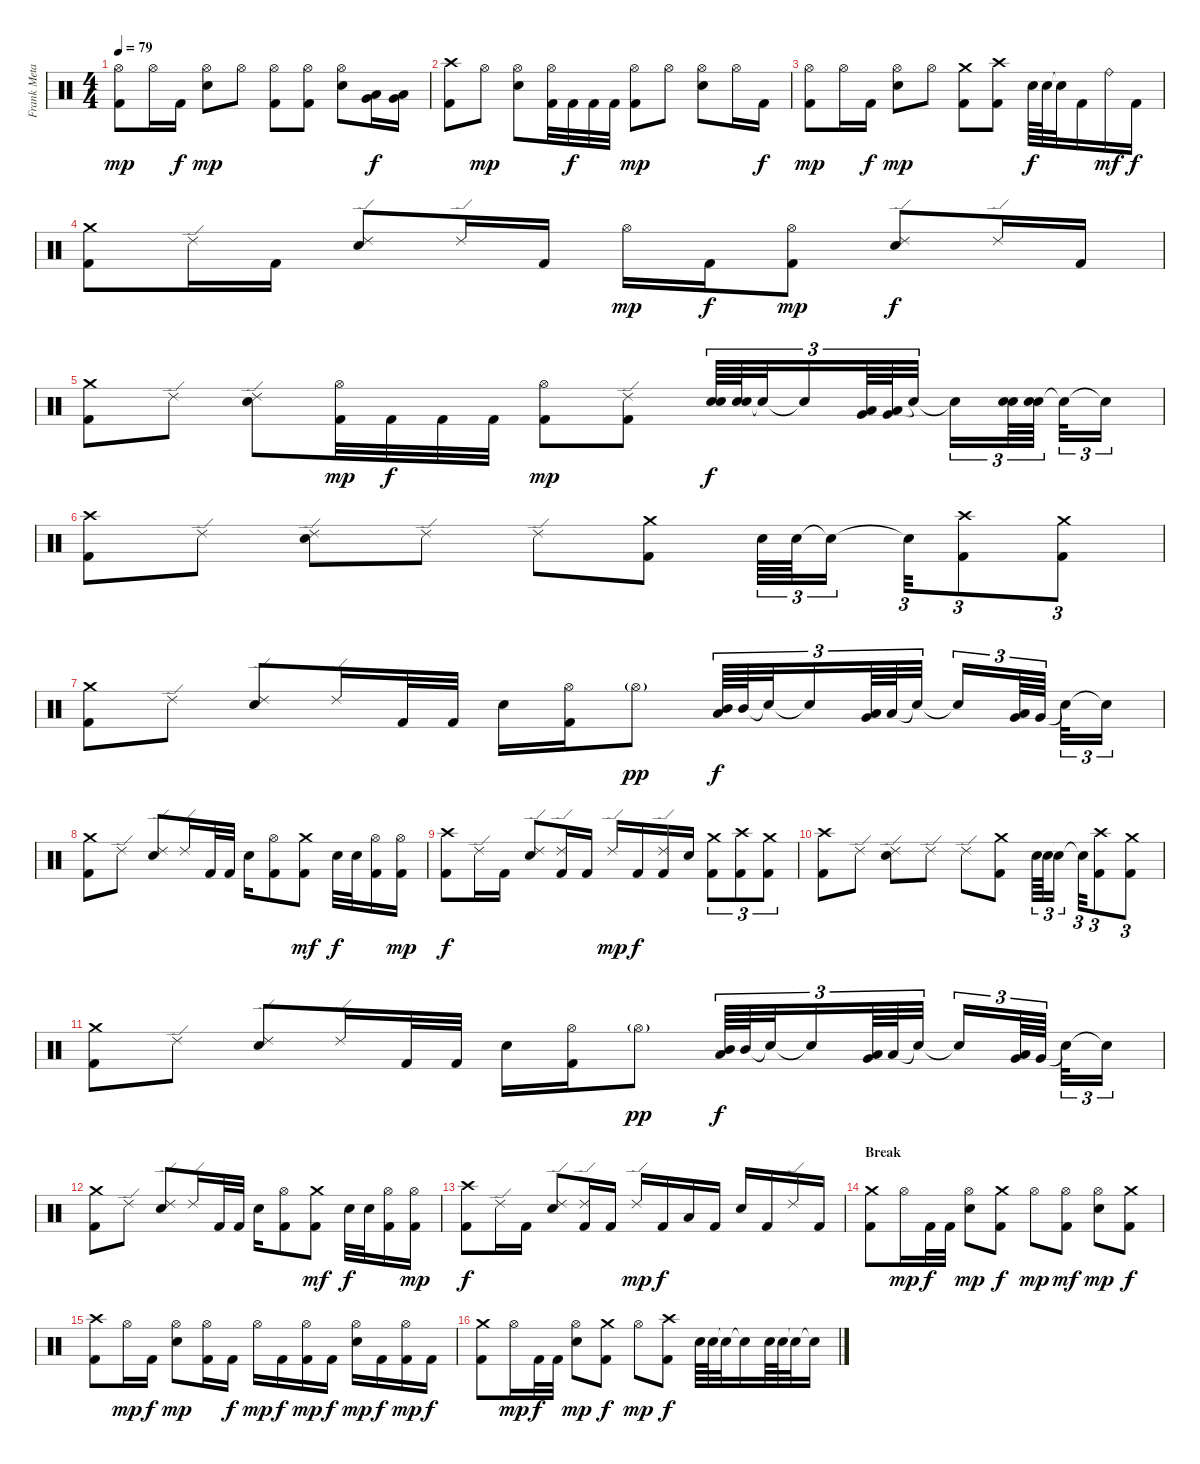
\track ("Frank Metayer" "Frank Meta") {instrument percussion}
\staff {score}
\articulation defaults
\ts (4 4)
\tempo 79
\clef neutral
\ks c
("Kick (hit) 2" "Hi-Hat (open)").8{dy mp} "Hi-Hat (open)".16 "Kick (hit) 2".16{dy f} ("Hi-Hat (open)" "Snare (hit) 2").8{dy mp} "Hi-Hat (open)".8 ("Kick (hit) 2" "Hi-Hat (open)").8 ("Kick (hit) 2" "Hi-Hat (open)").8 ("Hi-Hat (open)" "Snare (hit) 2").8 ("Very Low Tom (hit)" "Low Floor Tom (hit)").16{dy f} ("Very Low Tom (hit)" "Low Floor Tom (hit)").16 |
("Kick (hit) 2" "Crash high (hit)").8 "Hi-Hat (open)".8{dy mp} ("Hi-Hat (open)" "Snare (hit) 2").8 ("Kick (hit) 2" "Hi-Hat (open)").32 "Kick (hit) 2".32{dy f} "Kick (hit) 2".32 "Kick (hit) 2".32 ("Kick (hit) 2" "Hi-Hat (open)").8{dy mp} "Hi-Hat (open)".8 ("Hi-Hat (open)" "Snare (hit) 2").8 "Hi-Hat (open)".16 "Kick (hit) 2".16{dy f} |
("Kick (hit) 2" "Hi-Hat (open)").8{dy mp} "Hi-Hat (open)".16 "Kick (hit) 2".16{dy f} ("Hi-Hat (open)" "Snare (hit) 2").8{dy mp} "Hi-Hat (open)".8 ("Kick (hit) 2" "Crash medium (hit)").8 ("Kick (hit) 2" "Crash high (hit)").8 "Snare (hit) 2".64{dy f} "Snare (hit) 2".64 "Snare (hit)"{t}.32 "Kick (hit) 2".16 "Ride (bell)".16{dy mf} "Kick (hit) 2".16{dy f} |
("Kick (hit) 2" "Crash medium (hit)").8 "Ride (edge) 2".16 "Kick (hit) 2".16 ("Ride (edge) 2" "Snare (hit) 2").8 "Ride (edge) 2".16 "Kick (hit) 2".16 "Hi-Hat (open)".16{dy mp} "Kick (hit) 2".16{dy f} ("Kick (hit) 2" "Hi-Hat (open)").8{dy mp} ("Ride (edge) 2" "Snare (hit) 2").8{dy f} "Ride (edge) 2".16 "Kick (hit) 2".16 |
("Kick (hit) 2" "Crash medium (hit)").8 "Ride (edge) 2".8 ("Ride (edge) 2" "Snare (hit) 2").8 ("Kick (hit) 2" "Hi-Hat (open)").32{dy mp} "Kick (hit) 2".32{dy f} "Kick (hit) 2".32 "Kick (hit) 2".32 ("Kick (hit) 2" "Hi-Hat (open)").8{dy mp} ("Kick (hit) 2" "Ride (edge) 2").8 ("Snare (hit) 2" "Snare (hit) 2").64{tu (3 2) dy f} ("Snare (hit) 2" "Snare (hit) 2").64{tu (3 2)} "Snare (hit)"{t}.32{tu (3 2)} "Snare (hit)"{t}.16{tu (3 2)} ("Low Tom (hit)" "Very Low Tom (hit)").64{tu (3 2)} ("Low Tom (hit)" "Very Low Tom (hit)").64{tu (3 2)} "Snare (hit)"{t}.32{tu (3 2)} "Snare (hit)"{t}.16{tu (3 2)} ("Snare (hit) 2" "Snare (hit) 2").64{tu (3 2)} ("Snare (hit) 2" "Snare (hit) 2").64{tu (3 2)} "Snare (hit)"{t}.32{tu (3 2)} "Snare (hit)"{t}.16{tu (3 2)} |
("Kick (hit) 2" "Crash high (hit)").8 "Ride (edge) 2".8 ("Ride (edge) 2" "Snare (hit) 2").8 "Ride (edge) 2".8 "Ride (edge) 2".8 ("Kick (hit) 2" "Crash medium (hit)").8 "Snare (hit) 2".64{tu (3 2)} "Snare (hit) 2".64{tu (3 2)} "Snare (hit)"{t}.16{tu (3 2)} "Snare (hit)"{t}.32{tu (3 2)} ("Kick (hit) 2" "Crash high (hit)").8{tu (3 2)} ("Kick (hit) 2" "Crash medium (hit)").8{tu (3 2)} |
("Kick (hit) 2" "Crash medium (hit)").8 "Ride (edge) 2".8 ("Ride (edge) 2" "Snare (hit) 2").8 "Ride (edge) 2".16 "Kick (hit) 2".32 "Kick (hit) 2".32 "Snare (hit) 2".16 ("Kick (hit) 2" "Hi-Hat (open)").16 "Hi-Hat (open)"{g}.8{dy pp} ("Mid Tom (hit)" "Low Tom (hit)").64{tu (3 2) dy f} "Mid Tom (hit)".64{tu (3 2)} "Snare (hit)"{t}.32{tu (3 2)} "Snare (hit)"{t}.16{tu (3 2)} ("Low Tom (hit)" "Very Low Tom (hit)").64{tu (3 2)} "Low Tom (hit)".64{tu (3 2)} "Snare (hit)"{t}.32{tu (3 2)} "Snare (hit)"{t}.16{tu (3 2)} ("Very Low Tom (hit)" "Low Floor Tom (hit)").64{tu (3 2)} "Very Low Tom (hit)".64{tu (3 2)} "Snare (hit)"{t}.32{tu (3 2)} "Snare (hit)"{t}.16{tu (3 2)} |
("Kick (hit) 2" "Crash medium (hit)").8 "Ride (edge) 2".8 ("Ride (edge) 2" "Snare (hit) 2").8 "Ride (edge) 2".16 "Kick (hit) 2".32 "Kick (hit) 2".32 "Snare (hit) 2".16 ("Kick (hit) 2" "Hi-Hat (open)").8 ("Kick (hit) 2" "Crash medium (hit)").8{dy mf} "Snare (hit) 2".32{dy f} "Snare (hit) 2".32 ("Kick (hit) 2" "Hi-Hat (open)").16 ("Kick (hit) 2" "Hi-Hat (open)").16{dy mp} |
("Kick (hit) 2" "Crash high (hit)").8{dy f} "Ride (edge) 2".16 "Kick (hit) 2".16 ("Ride (edge) 2" "Snare (hit) 2").8 ("Kick (hit) 2" "Ride (edge) 2").16 "Kick (hit) 2".16 "Ride (edge) 2".16{dy mp} "Kick (hit) 2".16{dy f} ("Kick (hit) 2" "Ride (edge) 2").16 "Snare (hit) 2".16 ("Kick (hit) 2" "Crash medium (hit)").8{tu (3 2)} ("Kick (hit) 2" "Crash high (hit)").8{tu (3 2)} ("Kick (hit) 2" "Crash medium (hit)").8{tu (3 2)} |
("Kick (hit) 2" "Crash high (hit)").8 "Ride (edge) 2".8 ("Ride (edge) 2" "Snare (hit) 2").8 "Ride (edge) 2".8 "Ride (edge) 2".8 ("Kick (hit) 2" "Crash medium (hit)").8 "Snare (hit) 2".64{tu (3 2)} "Snare (hit) 2".64{tu (3 2)} "Snare (hit)"{t}.16{tu (3 2)} "Snare (hit)"{t}.32{tu (3 2)} ("Kick (hit) 2" "Crash high (hit)").8{tu (3 2)} ("Kick (hit) 2" "Crash medium (hit)").8{tu (3 2)} |
("Kick (hit) 2" "Crash medium (hit)").8 "Ride (edge) 2".8 ("Ride (edge) 2" "Snare (hit) 2").8 "Ride (edge) 2".16 "Kick (hit) 2".32 "Kick (hit) 2".32 "Snare (hit) 2".16 ("Kick (hit) 2" "Hi-Hat (open)").16 "Hi-Hat (open)"{g}.8{dy pp} ("Mid Tom (hit)" "Low Tom (hit)").64{tu (3 2) dy f} "Mid Tom (hit)".64{tu (3 2)} "Snare (hit)"{t}.32{tu (3 2)} "Snare (hit)"{t}.16{tu (3 2)} ("Low Tom (hit)" "Very Low Tom (hit)").64{tu (3 2)} "Low Tom (hit)".64{tu (3 2)} "Snare (hit)"{t}.32{tu (3 2)} "Snare (hit)"{t}.16{tu (3 2)} ("Very Low Tom (hit)" "Low Floor Tom (hit)").64{tu (3 2)} "Very Low Tom (hit)".64{tu (3 2)} "Snare (hit)"{t}.32{tu (3 2)} "Snare (hit)"{t}.16{tu (3 2)} |
("Kick (hit) 2" "Crash medium (hit)").8 "Ride (edge) 2".8 ("Ride (edge) 2" "Snare (hit) 2").8 "Ride (edge) 2".16 "Kick (hit) 2".32 "Kick (hit) 2".32 "Snare (hit) 2".16 ("Kick (hit) 2" "Hi-Hat (open)").8 ("Kick (hit) 2" "Crash medium (hit)").8{dy mf} "Snare (hit) 2".32{dy f} "Snare (hit) 2".32 ("Kick (hit) 2" "Hi-Hat (open)").16 ("Kick (hit) 2" "Hi-Hat (open)").16{dy mp} |
("Kick (hit) 2" "Crash high (hit)").8{dy f} "Ride (edge) 2".16 "Kick (hit) 2".16 ("Ride (edge) 2" "Snare (hit) 2").8 ("Kick (hit) 2" "Ride (edge) 2").16 "Kick (hit) 2".16 "Ride (edge) 2".16{dy mp} "Kick (hit) 2".16{dy f} "Low Tom (hit)".16 "Kick (hit) 2".16 "Snare (hit) 2".16 "Kick (hit) 2".16 "Ride (edge) 2".16 "Kick (hit) 2".16 |
\section ("" "Break")
("Kick (hit) 2" "Crash medium (hit)").8 "Hi-Hat (open)".16{dy mp} "Kick (hit) 2".32{dy f} "Kick (hit) 2".32 ("Hi-Hat (open)" "Snare (hit) 2").8{dy mp} ("Kick (hit) 2" "Crash medium (hit)").8{dy f} "Hi-Hat (open)".8{dy mp} ("Kick (hit) 2" "Hi-Hat (open)").8{dy mf} ("Hi-Hat (open)" "Snare (hit) 2").8{dy mp} ("Kick (hit) 2" "Crash medium (hit)").8{dy f} |
("Kick (hit) 2" "Crash high (hit)").8 "Hi-Hat (open)".16{dy mp} "Kick (hit) 2".16{dy f} ("Hi-Hat (open)" "Snare (hit) 2").8{dy mp} ("Kick (hit) 2" "Hi-Hat (open)").16 "Kick (hit) 2".16{dy f} "Hi-Hat (open)".16{dy mp} "Kick (hit) 2".16{dy f} ("Kick (hit) 2" "Hi-Hat (open)").16{dy mp} "Kick (hit) 2".16{dy f} ("Hi-Hat (open)" "Snare (hit) 2").16{dy mp} "Kick (hit) 2".16{dy f} ("Kick (hit) 2" "Hi-Hat (open)").16{dy mp} "Kick (hit) 2".16{dy f} |
("Kick (hit) 2" "Crash medium (hit)").8 "Hi-Hat (open)".16{dy mp} "Kick (hit) 2".32{dy f} "Kick (hit) 2".32 ("Hi-Hat (open)" "Snare (hit) 2").8{dy mp} ("Kick (hit) 2" "Crash medium (hit)").8{dy f} "Hi-Hat (open)".8{dy mp} ("Kick (hit) 2" "Crash high (hit)").8{dy f} "Snare (hit) 2".64 "Snare (hit) 2".64 "Snare (hit)"{t}.32 "Snare (hit)"{t}.16 "Snare (hit) 2".64 "Snare (hit) 2".64 "Snare (hit) 2"{t}.32 "Snare (hit) 2"{t}.16
